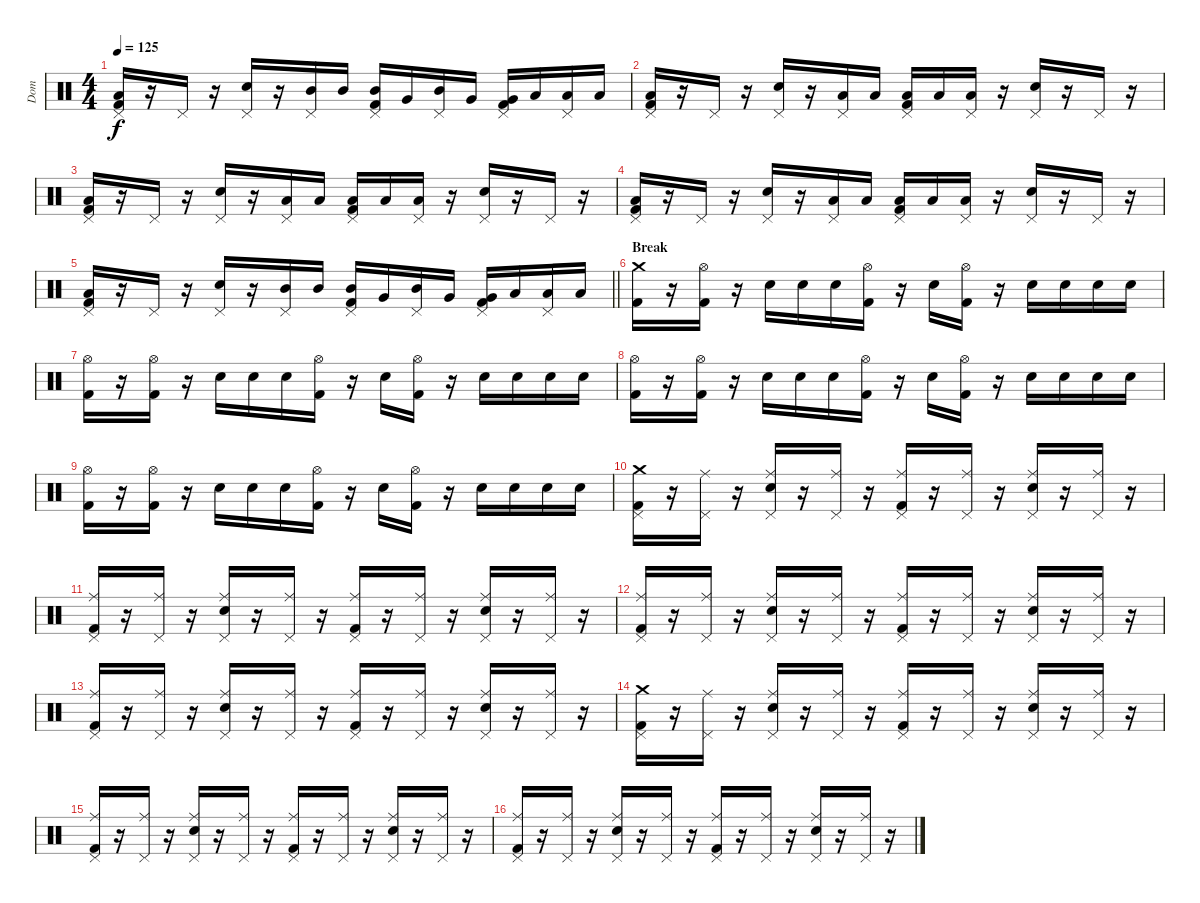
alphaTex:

\track ("Dom" "Dom") {instrument percussion}
\staff {score}
\articulation defaults
\ts (4 4)
\tempo 125
\clef neutral
\ks c
("Low Floor Tom (hit)" "Pedal Hi-Hat (hit)" "Kick (hit) 2").16{dy f} r.16 "Pedal Hi-Hat (hit)".16 r.16 ("Snare (hit) 2" "Pedal Hi-Hat (hit)").16 r.16 ("Mid Tom (hit)" "Pedal Hi-Hat (hit)").16 "Mid Tom (hit)".16 ("Mid Tom (hit)" "Pedal Hi-Hat (hit)" "Kick (hit) 2").16 "Very Low Tom (hit)".16 ("Mid Tom (hit)" "Pedal Hi-Hat (hit)").16 "Very Low Tom (hit)".16 ("Very Low Tom (hit)" "Pedal Hi-Hat (hit)" "Kick (hit) 2").16 "Low Floor Tom (hit)".16 ("Low Floor Tom (hit)" "Pedal Hi-Hat (hit)").16 "Low Floor Tom (hit)".16 |
("Low Floor Tom (hit)" "Pedal Hi-Hat (hit)" "Kick (hit) 2").16 r.16 "Pedal Hi-Hat (hit)".16 r.16 ("Snare (hit) 2" "Pedal Hi-Hat (hit)").16 r.16 ("Low Floor Tom (hit)" "Pedal Hi-Hat (hit)").16 "Low Floor Tom (hit)".16 ("Low Floor Tom (hit)" "Pedal Hi-Hat (hit)" "Kick (hit) 2").16 "Low Floor Tom (hit)".16 ("Low Floor Tom (hit)" "Pedal Hi-Hat (hit)").16 r.16 ("Snare (hit) 2" "Pedal Hi-Hat (hit)").16 r.16 "Pedal Hi-Hat (hit)".16 r.16 |
("Low Floor Tom (hit)" "Pedal Hi-Hat (hit)" "Kick (hit) 2").16 r.16 "Pedal Hi-Hat (hit)".16 r.16 ("Snare (hit) 2" "Pedal Hi-Hat (hit)").16 r.16 ("Low Floor Tom (hit)" "Pedal Hi-Hat (hit)").16 "Low Floor Tom (hit)".16 ("Low Floor Tom (hit)" "Pedal Hi-Hat (hit)" "Kick (hit) 2").16 "Low Floor Tom (hit)".16 ("Low Floor Tom (hit)" "Pedal Hi-Hat (hit)").16 r.16 ("Snare (hit) 2" "Pedal Hi-Hat (hit)").16 r.16 "Pedal Hi-Hat (hit)".16 r.16 |
("Low Floor Tom (hit)" "Pedal Hi-Hat (hit)" "Kick (hit) 2").16 r.16 "Pedal Hi-Hat (hit)".16 r.16 ("Snare (hit) 2" "Pedal Hi-Hat (hit)").16 r.16 ("Low Floor Tom (hit)" "Pedal Hi-Hat (hit)").16 "Low Floor Tom (hit)".16 ("Low Floor Tom (hit)" "Pedal Hi-Hat (hit)" "Kick (hit) 2").16 "Low Floor Tom (hit)".16 ("Low Floor Tom (hit)" "Pedal Hi-Hat (hit)").16 r.16 ("Snare (hit) 2" "Pedal Hi-Hat (hit)").16 r.16 "Pedal Hi-Hat (hit)".16 r.16 |
\barLineRight lightlight
("Low Floor Tom (hit)" "Pedal Hi-Hat (hit)" "Kick (hit) 2").16 r.16 "Pedal Hi-Hat (hit)".16 r.16 ("Snare (hit) 2" "Pedal Hi-Hat (hit)").16 r.16 ("Mid Tom (hit)" "Pedal Hi-Hat (hit)").16 "Mid Tom (hit)".16 ("Mid Tom (hit)" "Pedal Hi-Hat (hit)" "Kick (hit) 2").16 "Very Low Tom (hit)".16 ("Mid Tom (hit)" "Pedal Hi-Hat (hit)").16 "Very Low Tom (hit)".16 ("Very Low Tom (hit)" "Pedal Hi-Hat (hit)" "Kick (hit) 2").16 "Low Floor Tom (hit)".16 ("Low Floor Tom (hit)" "Pedal Hi-Hat (hit)").16 "Low Floor Tom (hit)".16 |
\section ("" "Break")
("Crash medium (hit)" "Kick (hit) 2").16 r.16 ("Hi-Hat (open)" "Kick (hit) 2").16 r.16 "Snare (hit) 2".16 "Snare (hit) 2".16 "Snare (hit) 2".16 ("Hi-Hat (open)" "Kick (hit) 2").16 r.16 "Snare (hit) 2".16 ("Hi-Hat (open)" "Kick (hit) 2").16 r.16 "Snare (hit) 2".16 "Snare (hit) 2".16 "Snare (hit) 2".16 "Snare (hit) 2".16 |
("Hi-Hat (open)" "Kick (hit) 2").16 r.16 ("Hi-Hat (open)" "Kick (hit) 2").16 r.16 "Snare (hit) 2".16 "Snare (hit) 2".16 "Snare (hit) 2".16 ("Hi-Hat (open)" "Kick (hit) 2").16 r.16 "Snare (hit) 2".16 ("Hi-Hat (open)" "Kick (hit) 2").16 r.16 "Snare (hit) 2".16 "Snare (hit) 2".16 "Snare (hit) 2".16 "Snare (hit) 2".16 |
("Hi-Hat (open)" "Kick (hit) 2").16 r.16 ("Hi-Hat (open)" "Kick (hit) 2").16 r.16 "Snare (hit) 2".16 "Snare (hit) 2".16 "Snare (hit) 2".16 ("Hi-Hat (open)" "Kick (hit) 2").16 r.16 "Snare (hit) 2".16 ("Hi-Hat (open)" "Kick (hit) 2").16 r.16 "Snare (hit) 2".16 "Snare (hit) 2".16 "Snare (hit) 2".16 "Snare (hit) 2".16 |
("Hi-Hat (open)" "Kick (hit) 2").16 r.16 ("Hi-Hat (open)" "Kick (hit) 2").16 r.16 "Snare (hit) 2".16 "Snare (hit) 2".16 "Snare (hit) 2".16 ("Hi-Hat (open)" "Kick (hit) 2").16 r.16 "Snare (hit) 2".16 ("Hi-Hat (open)" "Kick (hit) 2").16 r.16 "Snare (hit) 2".16 "Snare (hit) 2".16 "Snare (hit) 2".16 "Snare (hit) 2".16 |
("Crash medium (hit)" "Pedal Hi-Hat (hit)" "Kick (hit) 2").16 r.16 ("Ride (middle)" "Pedal Hi-Hat (hit)").16 r.16 ("Ride (middle)" "Snare (hit) 2" "Pedal Hi-Hat (hit)").16 r.16 ("Ride (middle)" "Pedal Hi-Hat (hit)").16 r.16 ("Ride (middle)" "Pedal Hi-Hat (hit)" "Kick (hit) 2").16 r.16 ("Ride (middle)" "Pedal Hi-Hat (hit)").16 r.16 ("Ride (middle)" "Snare (hit) 2" "Pedal Hi-Hat (hit)").16 r.16 ("Ride (middle)" "Pedal Hi-Hat (hit)").16 r.16 |
("Ride (middle)" "Pedal Hi-Hat (hit)" "Kick (hit) 2").16 r.16 ("Ride (middle)" "Pedal Hi-Hat (hit)").16 r.16 ("Ride (middle)" "Snare (hit) 2" "Pedal Hi-Hat (hit)").16 r.16 ("Ride (middle)" "Pedal Hi-Hat (hit)").16 r.16 ("Ride (middle)" "Pedal Hi-Hat (hit)" "Kick (hit) 2").16 r.16 ("Ride (middle)" "Pedal Hi-Hat (hit)").16 r.16 ("Ride (middle)" "Snare (hit) 2" "Pedal Hi-Hat (hit)").16 r.16 ("Ride (middle)" "Pedal Hi-Hat (hit)").16 r.16 |
("Ride (middle)" "Pedal Hi-Hat (hit)" "Kick (hit) 2").16 r.16 ("Ride (middle)" "Pedal Hi-Hat (hit)").16 r.16 ("Ride (middle)" "Snare (hit) 2" "Pedal Hi-Hat (hit)").16 r.16 ("Ride (middle)" "Pedal Hi-Hat (hit)").16 r.16 ("Ride (middle)" "Pedal Hi-Hat (hit)" "Kick (hit) 2").16 r.16 ("Ride (middle)" "Pedal Hi-Hat (hit)").16 r.16 ("Ride (middle)" "Snare (hit) 2" "Pedal Hi-Hat (hit)").16 r.16 ("Ride (middle)" "Pedal Hi-Hat (hit)").16 r.16 |
("Ride (middle)" "Pedal Hi-Hat (hit)" "Kick (hit) 2").16 r.16 ("Ride (middle)" "Pedal Hi-Hat (hit)").16 r.16 ("Ride (middle)" "Snare (hit) 2" "Pedal Hi-Hat (hit)").16 r.16 ("Ride (middle)" "Pedal Hi-Hat (hit)").16 r.16 ("Ride (middle)" "Pedal Hi-Hat (hit)" "Kick (hit) 2").16 r.16 ("Ride (middle)" "Pedal Hi-Hat (hit)").16 r.16 ("Ride (middle)" "Snare (hit) 2" "Pedal Hi-Hat (hit)").16 r.16 ("Ride (middle)" "Pedal Hi-Hat (hit)").16 r.16 |
("Crash medium (hit)" "Pedal Hi-Hat (hit)" "Kick (hit) 2").16 r.16 ("Ride (middle)" "Pedal Hi-Hat (hit)").16 r.16 ("Ride (middle)" "Snare (hit) 2" "Pedal Hi-Hat (hit)").16 r.16 ("Ride (middle)" "Pedal Hi-Hat (hit)").16 r.16 ("Ride (middle)" "Pedal Hi-Hat (hit)" "Kick (hit) 2").16 r.16 ("Ride (middle)" "Pedal Hi-Hat (hit)").16 r.16 ("Ride (middle)" "Snare (hit) 2" "Pedal Hi-Hat (hit)").16 r.16 ("Ride (middle)" "Pedal Hi-Hat (hit)").16 r.16 |
("Ride (middle)" "Pedal Hi-Hat (hit)" "Kick (hit) 2").16 r.16 ("Ride (middle)" "Pedal Hi-Hat (hit)").16 r.16 ("Ride (middle)" "Snare (hit) 2" "Pedal Hi-Hat (hit)").16 r.16 ("Ride (middle)" "Pedal Hi-Hat (hit)").16 r.16 ("Ride (middle)" "Pedal Hi-Hat (hit)" "Kick (hit) 2").16 r.16 ("Ride (middle)" "Pedal Hi-Hat (hit)").16 r.16 ("Ride (middle)" "Snare (hit) 2" "Pedal Hi-Hat (hit)").16 r.16 ("Ride (middle)" "Pedal Hi-Hat (hit)").16 r.16 |
("Ride (middle)" "Pedal Hi-Hat (hit)" "Kick (hit) 2").16 r.16 ("Ride (middle)" "Pedal Hi-Hat (hit)").16 r.16 ("Ride (middle)" "Snare (hit) 2" "Pedal Hi-Hat (hit)").16 r.16 ("Ride (middle)" "Pedal Hi-Hat (hit)").16 r.16 ("Ride (middle)" "Pedal Hi-Hat (hit)" "Kick (hit) 2").16 r.16 ("Ride (middle)" "Pedal Hi-Hat (hit)").16 r.16 ("Ride (middle)" "Snare (hit) 2" "Pedal Hi-Hat (hit)").16 r.16 ("Ride (middle)" "Pedal Hi-Hat (hit)").16 r.16
